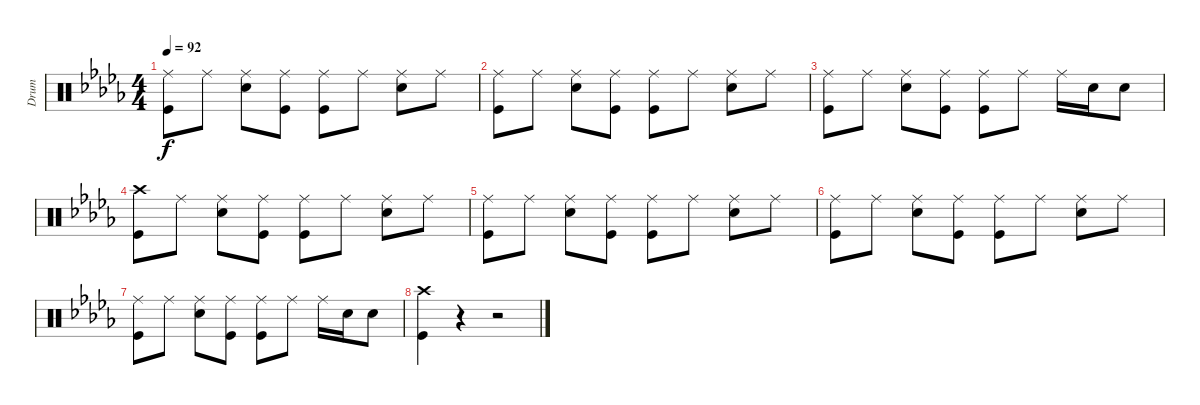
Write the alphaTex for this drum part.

\track ("Drum" "Drum") {instrument percussion}
\staff {score}
\articulation defaults
\ts (4 4)
\tempo 92
\clef neutral
\ks db
("Ride (middle)" "Kick (hit)").8{dy f} "Ride (middle)".8 ("Ride (middle)" "Snare (hit) 2").8 ("Ride (middle)" "Kick (hit)").8 ("Ride (middle)" "Kick (hit)").8 "Ride (middle)".8 ("Ride (middle)" "Snare (hit) 2").8 "Ride (middle)".8 |
("Ride (middle)" "Kick (hit)").8 "Ride (middle)".8 ("Ride (middle)" "Snare (hit) 2").8 ("Ride (middle)" "Kick (hit)").8 ("Ride (middle)" "Kick (hit)").8 "Ride (middle)".8 ("Ride (middle)" "Snare (hit) 2").8 "Ride (middle)".8 |
("Ride (middle)" "Kick (hit)").8 "Ride (middle)".8 ("Ride (middle)" "Snare (hit) 2").8 ("Ride (middle)" "Kick (hit)").8 ("Ride (middle)" "Kick (hit)").8 "Ride (middle)".8 "Ride (middle)".16 "Snare (hit) 2".16 "Snare (hit) 2".8 |
("Crash high (hit)" "Kick (hit)").8 "Ride (middle)".8 ("Ride (middle)" "Snare (hit) 2").8 ("Ride (middle)" "Kick (hit)").8 ("Ride (middle)" "Kick (hit)").8 "Ride (middle)".8 ("Ride (middle)" "Snare (hit) 2").8 "Ride (middle)".8 |
("Ride (middle)" "Kick (hit)").8 "Ride (middle)".8 ("Ride (middle)" "Snare (hit) 2").8 ("Ride (middle)" "Kick (hit)").8 ("Ride (middle)" "Kick (hit)").8 "Ride (middle)".8 ("Ride (middle)" "Snare (hit) 2").8 "Ride (middle)".8 |
("Ride (middle)" "Kick (hit)").8 "Ride (middle)".8 ("Ride (middle)" "Snare (hit) 2").8 ("Ride (middle)" "Kick (hit)").8 ("Ride (middle)" "Kick (hit)").8 "Ride (middle)".8 ("Ride (middle)" "Snare (hit) 2").8 "Ride (middle)".8 |
("Ride (middle)" "Kick (hit)").8 "Ride (middle)".8 ("Ride (middle)" "Snare (hit) 2").8 ("Ride (middle)" "Kick (hit)").8 ("Ride (middle)" "Kick (hit)").8 "Ride (middle)".8 "Ride (middle)".16 "Snare (hit) 2".16 "Snare (hit) 2".8 |
("Crash high (hit)" "Kick (hit)").4 r.4 r.2
